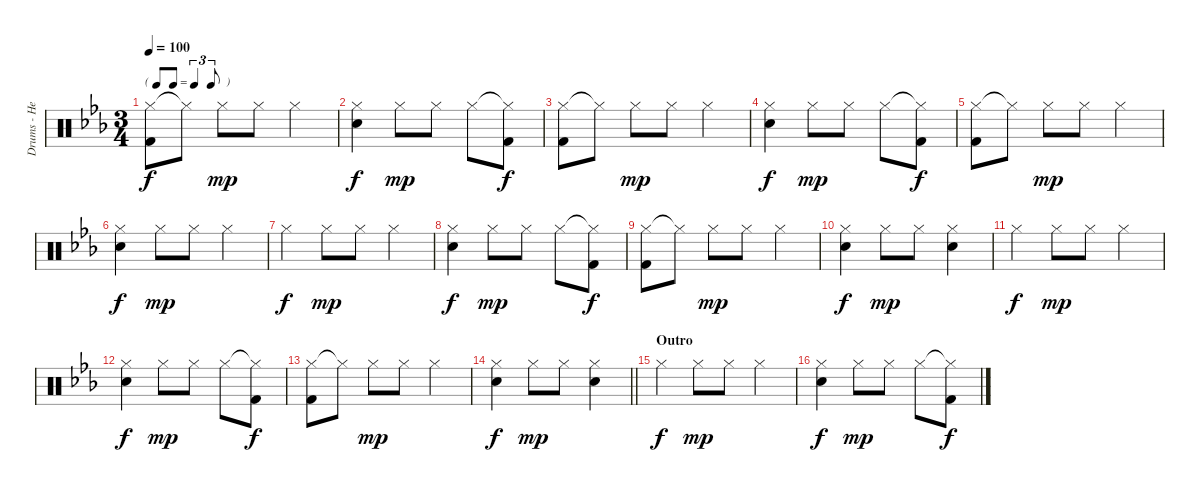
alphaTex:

\track ("Drums - Henley" "Drums - He") {instrument percussion}
\staff {score}
\articulation defaults
\ts (3 4)
\tf triplet8th
\tempo 100
\clef neutral
\ks eb
("Hi-Hat (closed)" "Kick (hit) 2").8{dy f} "Hi-Hat (closed)"{t}.8 "Hi-Hat (closed)".8{dy mp} "Hi-Hat (closed)".8 "Hi-Hat (closed)".4 |
("Hi-Hat (closed)" "Electric Snare (hit)").4{dy f} "Hi-Hat (closed)".8{dy mp} "Hi-Hat (closed)".8 "Hi-Hat (closed)".8 ("Hi-Hat (closed)"{t} "Kick (hit) 2").8{dy f} |
("Hi-Hat (closed)" "Kick (hit) 2").8 "Hi-Hat (closed)"{t}.8 "Hi-Hat (closed)".8{dy mp} "Hi-Hat (closed)".8 "Hi-Hat (closed)".4 |
("Hi-Hat (closed)" "Electric Snare (hit)").4{dy f} "Hi-Hat (closed)".8{dy mp} "Hi-Hat (closed)".8 "Hi-Hat (closed)".8 ("Hi-Hat (closed)"{t} "Kick (hit) 2").8{dy f} |
("Hi-Hat (closed)" "Kick (hit) 2").8 "Hi-Hat (closed)"{t}.8 "Hi-Hat (closed)".8{dy mp} "Hi-Hat (closed)".8 "Hi-Hat (closed)".4 |
("Hi-Hat (closed)" "Electric Snare (hit)").4{dy f} "Hi-Hat (closed)".8{dy mp} "Hi-Hat (closed)".8 "Hi-Hat (closed)".4 |
"Hi-Hat (closed)".4{dy f} "Hi-Hat (closed)".8{dy mp} "Hi-Hat (closed)".8 "Hi-Hat (closed)".4 |
("Hi-Hat (closed)" "Electric Snare (hit)").4{dy f} "Hi-Hat (closed)".8{dy mp} "Hi-Hat (closed)".8 "Hi-Hat (closed)".8 ("Hi-Hat (closed)"{t} "Kick (hit) 2").8{dy f} |
("Hi-Hat (closed)" "Kick (hit) 2").8 "Hi-Hat (closed)"{t}.8 "Hi-Hat (closed)".8{dy mp} "Hi-Hat (closed)".8 "Hi-Hat (closed)".4 |
("Hi-Hat (closed)" "Electric Snare (hit)").4{dy f} "Hi-Hat (closed)".8{dy mp} "Hi-Hat (closed)".8 ("Hi-Hat (closed)" "Electric Snare (hit)").4 |
"Hi-Hat (closed)".4{dy f} "Hi-Hat (closed)".8{dy mp} "Hi-Hat (closed)".8 "Hi-Hat (closed)".4 |
("Hi-Hat (closed)" "Electric Snare (hit)").4{dy f} "Hi-Hat (closed)".8{dy mp} "Hi-Hat (closed)".8 "Hi-Hat (closed)".8 ("Hi-Hat (closed)"{t} "Kick (hit) 2").8{dy f} |
("Hi-Hat (closed)" "Kick (hit) 2").8 "Hi-Hat (closed)"{t}.8 "Hi-Hat (closed)".8{dy mp} "Hi-Hat (closed)".8 "Hi-Hat (closed)".4 |
\barLineRight lightlight
("Hi-Hat (closed)" "Electric Snare (hit)").4{dy f} "Hi-Hat (closed)".8{dy mp} "Hi-Hat (closed)".8 ("Hi-Hat (closed)" "Electric Snare (hit)").4 |
\section ("" "Outro")
"Hi-Hat (closed)".4{dy f} "Hi-Hat (closed)".8{dy mp} "Hi-Hat (closed)".8 "Hi-Hat (closed)".4 |
("Hi-Hat (closed)" "Electric Snare (hit)").4{dy f} "Hi-Hat (closed)".8{dy mp} "Hi-Hat (closed)".8 "Hi-Hat (closed)".8 ("Hi-Hat (closed)"{t} "Kick (hit) 2").8{dy f}
